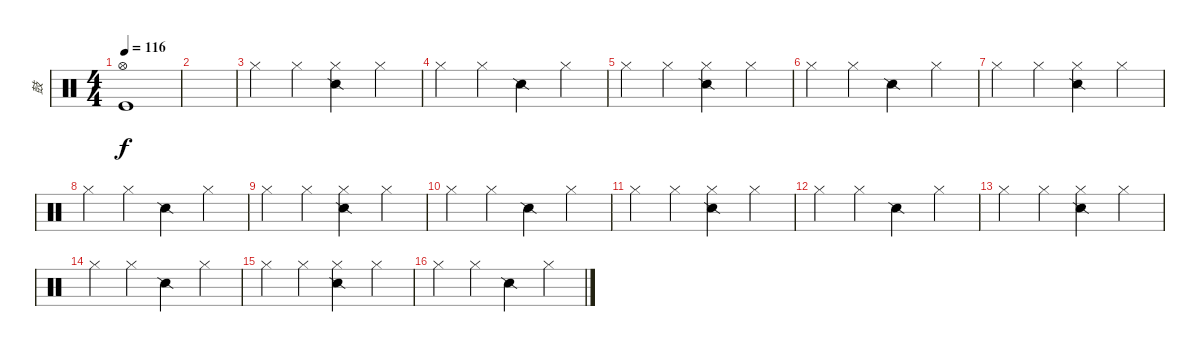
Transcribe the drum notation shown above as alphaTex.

\track ("鼓" "鼓") {instrument percussion}
\staff {score}
\articulation defaults
\ts (4 4)
\tempo 116
\clef neutral
\ks c
("Hi-Hat (open)" "Kick (hit)").1{dy f} |
|
"Hi-Hat (closed)".4 "Hi-Hat (closed)".4 ("Hi-Hat (closed)" "Snare (side stick) 2").4 "Hi-Hat (closed)".4 |
"Hi-Hat (closed)".4 "Hi-Hat (closed)".4 "Snare (side stick) 2".4 "Hi-Hat (closed)".4 |
"Hi-Hat (closed)".4 "Hi-Hat (closed)".4 ("Hi-Hat (closed)" "Snare (side stick) 2").4 "Hi-Hat (closed)".4 |
"Hi-Hat (closed)".4 "Hi-Hat (closed)".4 "Snare (side stick) 2".4 "Hi-Hat (closed)".4 |
"Hi-Hat (closed)".4 "Hi-Hat (closed)".4 ("Hi-Hat (closed)" "Snare (side stick) 2").4 "Hi-Hat (closed)".4 |
"Hi-Hat (closed)".4 "Hi-Hat (closed)".4 "Snare (side stick) 2".4 "Hi-Hat (closed)".4 |
"Hi-Hat (closed)".4 "Hi-Hat (closed)".4 ("Hi-Hat (closed)" "Snare (side stick) 2").4 "Hi-Hat (closed)".4 |
"Hi-Hat (closed)".4 "Hi-Hat (closed)".4 "Snare (side stick) 2".4 "Hi-Hat (closed)".4 |
"Hi-Hat (closed)".4 "Hi-Hat (closed)".4 ("Hi-Hat (closed)" "Snare (side stick) 2").4 "Hi-Hat (closed)".4 |
"Hi-Hat (closed)".4 "Hi-Hat (closed)".4 "Snare (side stick) 2".4 "Hi-Hat (closed)".4 |
"Hi-Hat (closed)".4 "Hi-Hat (closed)".4 ("Hi-Hat (closed)" "Snare (side stick) 2").4 "Hi-Hat (closed)".4 |
"Hi-Hat (closed)".4 "Hi-Hat (closed)".4 "Snare (side stick) 2".4 "Hi-Hat (closed)".4 |
"Hi-Hat (closed)".4 "Hi-Hat (closed)".4 ("Hi-Hat (closed)" "Snare (side stick) 2").4 "Hi-Hat (closed)".4 |
"Hi-Hat (closed)".4 "Hi-Hat (closed)".4 "Snare (side stick) 2".4 "Hi-Hat (closed)".4
